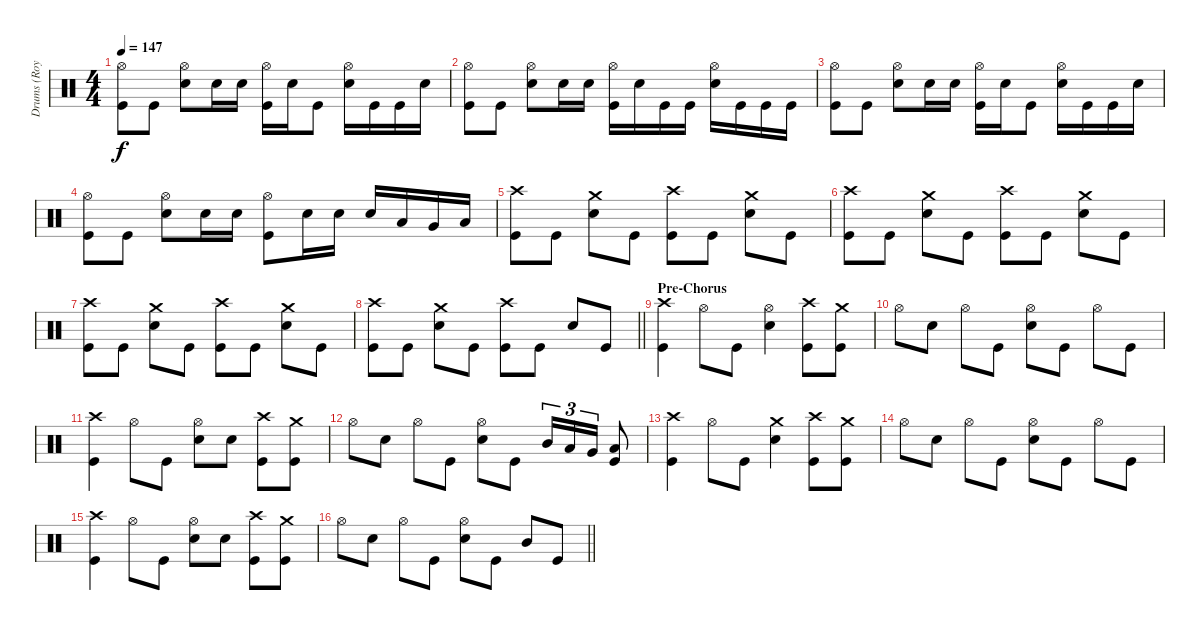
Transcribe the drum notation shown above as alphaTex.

\track ("Drums (Roy)" "Drums (Roy") {instrument percussion}
\staff {score}
\articulation defaults
\ts (4 4)
\tempo 147
\clef neutral
\ks c
("Hi-Hat (open)" "Kick (hit)").8{dy f} "Kick (hit)".8 ("Hi-Hat (open)" "Snare (hit) 2").8 "Snare (hit) 2".16 "Snare (hit) 2".16 ("Hi-Hat (open)" "Kick (hit)").16 "Snare (hit) 2".16 "Kick (hit)".8 ("Hi-Hat (open)" "Snare (hit) 2").16 "Kick (hit)".16 "Kick (hit)".16 "Snare (hit) 2".16 |
("Hi-Hat (open)" "Kick (hit)").8 "Kick (hit)".8 ("Hi-Hat (open)" "Snare (hit) 2").8 "Snare (hit) 2".16 "Snare (hit) 2".16 ("Hi-Hat (open)" "Kick (hit)").16 "Snare (hit) 2".16 "Kick (hit)".16 "Kick (hit)".16 ("Hi-Hat (open)" "Snare (hit) 2").16 "Kick (hit)".16 "Kick (hit)".16 "Kick (hit)".16 |
("Hi-Hat (open)" "Kick (hit)").8 "Kick (hit)".8 ("Hi-Hat (open)" "Snare (hit) 2").8 "Snare (hit) 2".16 "Snare (hit) 2".16 ("Hi-Hat (open)" "Kick (hit)").16 "Snare (hit) 2".16 "Kick (hit)".8 ("Hi-Hat (open)" "Snare (hit) 2").16 "Kick (hit)".16 "Kick (hit)".16 "Snare (hit) 2".16 |
("Hi-Hat (open)" "Kick (hit)").8 "Kick (hit)".8 ("Hi-Hat (open)" "Snare (hit) 2").8 "Snare (hit) 2".16 "Snare (hit) 2".16 ("Hi-Hat (open)" "Kick (hit)").8 "Snare (hit) 2".16 "Snare (hit) 2".16 "Snare (hit) 2".16 "Low Tom (hit)".16 "Very Low Tom (hit)".16 "Low Floor Tom (hit)".16 |
("Crash high (hit)" "Kick (hit)").8 "Kick (hit)".8 ("Crash medium (hit)" "Snare (hit) 2").8 "Kick (hit)".8 ("Crash high (hit)" "Kick (hit)").8 "Kick (hit)".8 ("Crash medium (hit)" "Snare (hit) 2").8 "Kick (hit)".8 |
("Crash high (hit)" "Kick (hit)").8 "Kick (hit)".8 ("Crash medium (hit)" "Snare (hit) 2").8 "Kick (hit)".8 ("Crash high (hit)" "Kick (hit)").8 "Kick (hit)".8 ("Crash medium (hit)" "Snare (hit) 2").8 "Kick (hit)".8 |
("Crash high (hit)" "Kick (hit)").8 "Kick (hit)".8 ("Crash medium (hit)" "Snare (hit) 2").8 "Kick (hit)".8 ("Crash high (hit)" "Kick (hit)").8 "Kick (hit)".8 ("Crash medium (hit)" "Snare (hit) 2").8 "Kick (hit)".8 |
\barLineRight lightlight
("Crash high (hit)" "Kick (hit)").8 "Kick (hit)".8 ("Crash medium (hit)" "Snare (hit) 2").8 "Kick (hit)".8 ("Crash high (hit)" "Kick (hit)").8 "Kick (hit)".8 "Snare (hit) 2".8 "Kick (hit)".8 |
\section ("" "Pre-Chorus")
("Crash high (hit)" "Kick (hit)").4 "Hi-Hat (open)".8 "Kick (hit)".8 ("Hi-Hat (open)" "Snare (hit) 2").4 ("Crash high (hit)" "Kick (hit)").8 ("Crash medium (hit)" "Kick (hit)").8 |
"Hi-Hat (open)".8 "Snare (hit) 2".8 "Hi-Hat (open)".8 "Kick (hit)".8 ("Hi-Hat (open)" "Snare (hit) 2").8 "Kick (hit)".8 "Hi-Hat (open)".8 "Kick (hit)".8 |
("Crash high (hit)" "Kick (hit)").4 "Hi-Hat (open)".8 "Kick (hit)".8 ("Hi-Hat (open)" "Snare (hit) 2").8 "Snare (hit) 2".8 ("Crash high (hit)" "Kick (hit)").8 ("Crash medium (hit)" "Kick (hit)").8 |
"Hi-Hat (open)".8 "Snare (hit) 2".8 "Hi-Hat (open)".8 "Kick (hit)".8 ("Hi-Hat (open)" "Snare (hit) 2").8 "Kick (hit)".8 "Mid Tom (hit)".16{tu (3 2)} "Low Tom (hit)".16{tu (3 2)} "Very Low Tom (hit)".16{tu (3 2)} ("Low Floor Tom (hit)" "Kick (hit)").8 |
("Crash high (hit)" "Kick (hit)").4 "Hi-Hat (open)".8 "Kick (hit)".8 ("Crash medium (hit)" "Snare (hit) 2").4 ("Crash high (hit)" "Kick (hit)").8 ("Crash medium (hit)" "Kick (hit)").8 |
"Hi-Hat (open)".8 "Snare (hit) 2".8 "Hi-Hat (open)".8 "Kick (hit)".8 ("Hi-Hat (open)" "Snare (hit) 2").8 "Kick (hit)".8 "Hi-Hat (open)".8 "Kick (hit)".8 |
("Crash high (hit)" "Kick (hit)").4 "Hi-Hat (open)".8 "Kick (hit)".8 ("Hi-Hat (open)" "Snare (hit) 2").8 "Snare (hit) 2".8 ("Crash high (hit)" "Kick (hit)").8 ("Crash medium (hit)" "Kick (hit)").8 |
\barLineRight lightlight "Hi-Hat (open)".8 "Snare (hit) 2".8 "Hi-Hat (open)".8 "Kick (hit)".8
("Hi-Hat (open)" "Snare (hit) 2").8 "Kick (hit)".8 "Mid Tom (hit)".8 "Kick (hit)".8
